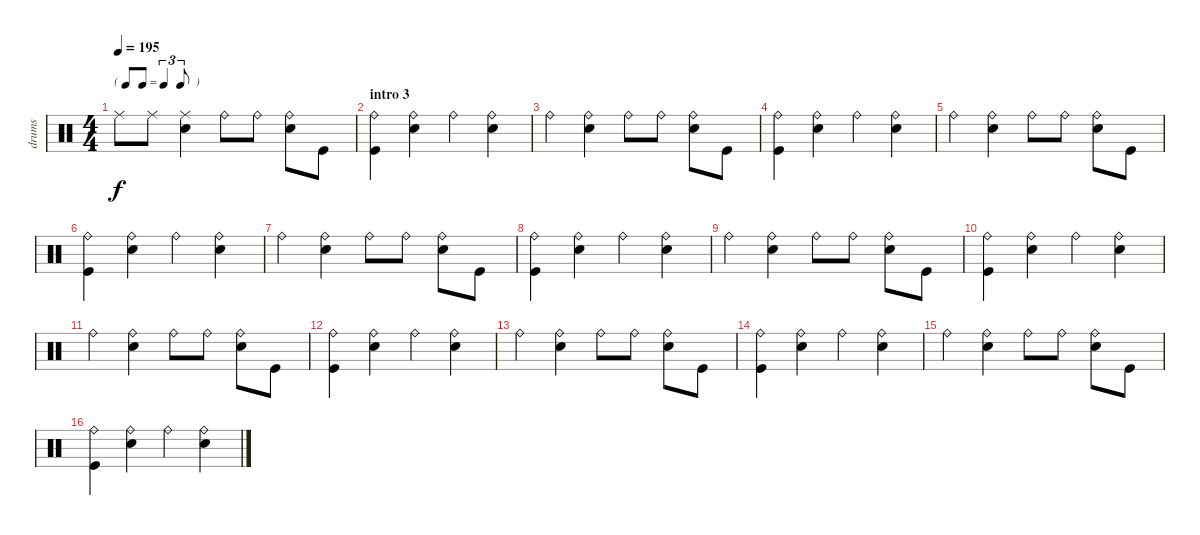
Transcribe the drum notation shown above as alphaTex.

\track ("drums" "drums") {instrument percussion}
\staff {score}
\articulation defaults
\ts (4 4)
\tf triplet8th
\tempo 195
\clef neutral
\ks c "Ride (middle)".8{dy f} "Ride (middle)".8
("Ride (middle)" "Snare (hit) 2").4 "Ride (bell)".8 "Ride (bell)".8 ("Ride (bell)" "Snare (hit) 2").8 "Kick (hit)".8 |
\section ("" "intro 3")
("Ride (bell)" "Kick (hit)").4 ("Ride (bell)" "Snare (hit) 2").4 "Ride (bell)".4 ("Ride (bell)" "Snare (hit) 2").4 |
"Ride (bell)".4 ("Ride (bell)" "Snare (hit) 2").4 "Ride (bell)".8 "Ride (bell)".8 ("Ride (bell)" "Snare (hit) 2").8 "Kick (hit)".8 |
("Ride (bell)" "Kick (hit)").4 ("Ride (bell)" "Snare (hit) 2").4 "Ride (bell)".4 ("Ride (bell)" "Snare (hit) 2").4 |
"Ride (bell)".4 ("Ride (bell)" "Snare (hit) 2").4 "Ride (bell)".8 "Ride (bell)".8 ("Ride (bell)" "Snare (hit) 2").8 "Kick (hit)".8 |
("Ride (bell)" "Kick (hit)").4 ("Ride (bell)" "Snare (hit) 2").4 "Ride (bell)".4 ("Ride (bell)" "Snare (hit) 2").4 |
"Ride (bell)".4 ("Ride (bell)" "Snare (hit) 2").4 "Ride (bell)".8 "Ride (bell)".8 ("Ride (bell)" "Snare (hit) 2").8 "Kick (hit)".8 |
("Ride (bell)" "Kick (hit)").4 ("Ride (bell)" "Snare (hit) 2").4 "Ride (bell)".4 ("Ride (bell)" "Snare (hit) 2").4 |
"Ride (bell)".4 ("Ride (bell)" "Snare (hit) 2").4 "Ride (bell)".8 "Ride (bell)".8 ("Ride (bell)" "Snare (hit) 2").8 "Kick (hit)".8 |
("Ride (bell)" "Kick (hit)").4 ("Ride (bell)" "Snare (hit) 2").4 "Ride (bell)".4 ("Ride (bell)" "Snare (hit) 2").4 |
"Ride (bell)".4 ("Ride (bell)" "Snare (hit) 2").4 "Ride (bell)".8 "Ride (bell)".8 ("Ride (bell)" "Snare (hit) 2").8 "Kick (hit)".8 |
("Ride (bell)" "Kick (hit)").4 ("Ride (bell)" "Snare (hit) 2").4 "Ride (bell)".4 ("Ride (bell)" "Snare (hit) 2").4 |
"Ride (bell)".4 ("Ride (bell)" "Snare (hit) 2").4 "Ride (bell)".8 "Ride (bell)".8 ("Ride (bell)" "Snare (hit) 2").8 "Kick (hit)".8 |
("Ride (bell)" "Kick (hit)").4 ("Ride (bell)" "Snare (hit) 2").4 "Ride (bell)".4 ("Ride (bell)" "Snare (hit) 2").4 |
"Ride (bell)".4 ("Ride (bell)" "Snare (hit) 2").4 "Ride (bell)".8 "Ride (bell)".8 ("Ride (bell)" "Snare (hit) 2").8 "Kick (hit)".8 |
("Ride (bell)" "Kick (hit)").4 ("Ride (bell)" "Snare (hit) 2").4 "Ride (bell)".4 ("Ride (bell)" "Snare (hit) 2").4
